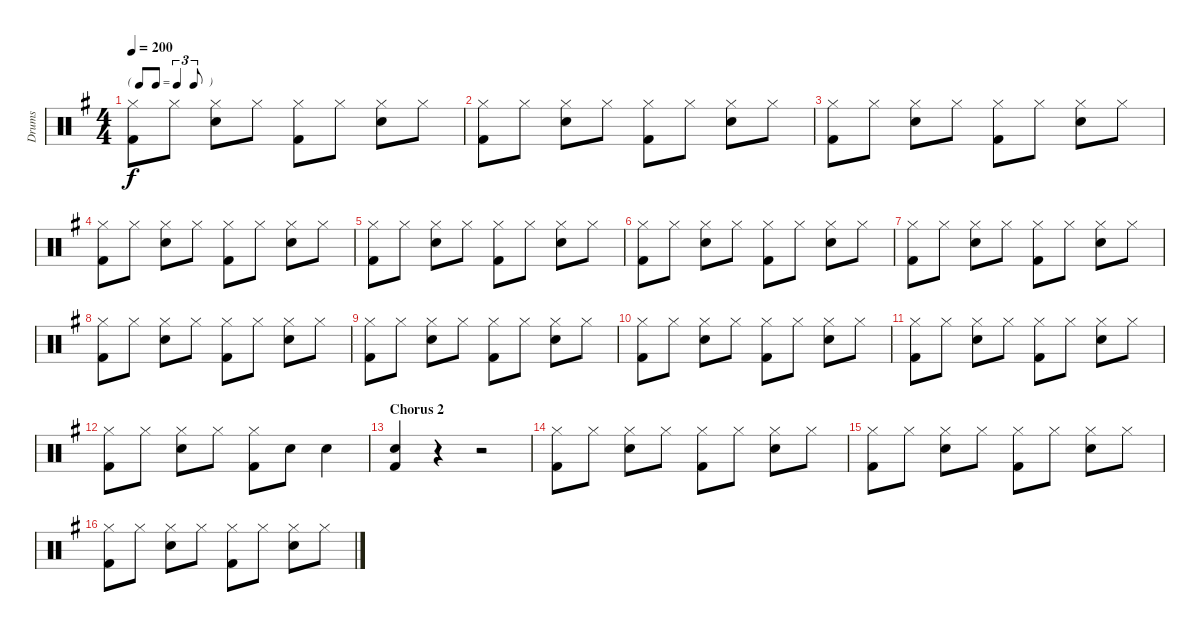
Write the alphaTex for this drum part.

\track ("Drums" "Drums") {instrument percussion}
\staff {score}
\articulation defaults
\ts (4 4)
\tf triplet8th
\tempo 200
\clef neutral
\ks g
("Hi-Hat (closed)" "Kick (hit) 2").8{dy f} "Hi-Hat (closed)".8 ("Hi-Hat (closed)" "Snare (hit) 2").8 "Hi-Hat (closed)".8 ("Hi-Hat (closed)" "Kick (hit) 2").8 "Hi-Hat (closed)".8 ("Hi-Hat (closed)" "Snare (hit) 2").8 "Hi-Hat (closed)".8 |
("Hi-Hat (closed)" "Kick (hit) 2").8 "Hi-Hat (closed)".8 ("Hi-Hat (closed)" "Snare (hit) 2").8 "Hi-Hat (closed)".8 ("Hi-Hat (closed)" "Kick (hit) 2").8 "Hi-Hat (closed)".8 ("Hi-Hat (closed)" "Snare (hit) 2").8 "Hi-Hat (closed)".8 |
("Hi-Hat (closed)" "Kick (hit) 2").8 "Hi-Hat (closed)".8 ("Hi-Hat (closed)" "Snare (hit) 2").8 "Hi-Hat (closed)".8 ("Hi-Hat (closed)" "Kick (hit) 2").8 "Hi-Hat (closed)".8 ("Hi-Hat (closed)" "Snare (hit) 2").8 "Hi-Hat (closed)".8 |
("Hi-Hat (closed)" "Kick (hit) 2").8 "Hi-Hat (closed)".8 ("Hi-Hat (closed)" "Snare (hit) 2").8 "Hi-Hat (closed)".8 ("Hi-Hat (closed)" "Kick (hit) 2").8 "Hi-Hat (closed)".8 ("Hi-Hat (closed)" "Snare (hit) 2").8 "Hi-Hat (closed)".8 |
("Hi-Hat (closed)" "Kick (hit) 2").8 "Hi-Hat (closed)".8 ("Hi-Hat (closed)" "Snare (hit) 2").8 "Hi-Hat (closed)".8 ("Hi-Hat (closed)" "Kick (hit) 2").8 "Hi-Hat (closed)".8 ("Hi-Hat (closed)" "Snare (hit) 2").8 "Hi-Hat (closed)".8 |
("Hi-Hat (closed)" "Kick (hit) 2").8 "Hi-Hat (closed)".8 ("Hi-Hat (closed)" "Snare (hit) 2").8 "Hi-Hat (closed)".8 ("Hi-Hat (closed)" "Kick (hit) 2").8 "Hi-Hat (closed)".8 ("Hi-Hat (closed)" "Snare (hit) 2").8 "Hi-Hat (closed)".8 |
("Hi-Hat (closed)" "Kick (hit) 2").8 "Hi-Hat (closed)".8 ("Hi-Hat (closed)" "Snare (hit) 2").8 "Hi-Hat (closed)".8 ("Hi-Hat (closed)" "Kick (hit) 2").8 "Hi-Hat (closed)".8 ("Hi-Hat (closed)" "Snare (hit) 2").8 "Hi-Hat (closed)".8 |
("Hi-Hat (closed)" "Kick (hit) 2").8 "Hi-Hat (closed)".8 ("Hi-Hat (closed)" "Snare (hit) 2").8 "Hi-Hat (closed)".8 ("Hi-Hat (closed)" "Kick (hit) 2").8 "Hi-Hat (closed)".8 ("Hi-Hat (closed)" "Snare (hit) 2").8 "Hi-Hat (closed)".8 |
("Hi-Hat (closed)" "Kick (hit) 2").8 "Hi-Hat (closed)".8 ("Hi-Hat (closed)" "Snare (hit) 2").8 "Hi-Hat (closed)".8 ("Hi-Hat (closed)" "Kick (hit) 2").8 "Hi-Hat (closed)".8 ("Hi-Hat (closed)" "Snare (hit) 2").8 "Hi-Hat (closed)".8 |
("Hi-Hat (closed)" "Kick (hit) 2").8 "Hi-Hat (closed)".8 ("Hi-Hat (closed)" "Snare (hit) 2").8 "Hi-Hat (closed)".8 ("Hi-Hat (closed)" "Kick (hit) 2").8 "Hi-Hat (closed)".8 ("Hi-Hat (closed)" "Snare (hit) 2").8 "Hi-Hat (closed)".8 |
("Hi-Hat (closed)" "Kick (hit) 2").8 "Hi-Hat (closed)".8 ("Hi-Hat (closed)" "Snare (hit) 2").8 "Hi-Hat (closed)".8 ("Hi-Hat (closed)" "Kick (hit) 2").8 "Hi-Hat (closed)".8 ("Hi-Hat (closed)" "Snare (hit) 2").8 "Hi-Hat (closed)".8 |
("Hi-Hat (closed)" "Kick (hit) 2").8 "Hi-Hat (closed)".8 ("Hi-Hat (closed)" "Snare (hit) 2").8 "Hi-Hat (closed)".8 ("Hi-Hat (closed)" "Kick (hit) 2").8 "Snare (hit) 2".8 "Snare (hit) 2".4 |
\section ("" "Chorus 2")
("Snare (hit) 2" "Kick (hit) 2").4 r.4 r.2 |
("Hi-Hat (closed)" "Kick (hit) 2").8 "Hi-Hat (closed)".8 ("Hi-Hat (closed)" "Snare (hit) 2").8 "Hi-Hat (closed)".8 ("Hi-Hat (closed)" "Kick (hit) 2").8 "Hi-Hat (closed)".8 ("Hi-Hat (closed)" "Snare (hit) 2").8 "Hi-Hat (closed)".8 |
("Hi-Hat (closed)" "Kick (hit) 2").8 "Hi-Hat (closed)".8 ("Hi-Hat (closed)" "Snare (hit) 2").8 "Hi-Hat (closed)".8 ("Hi-Hat (closed)" "Kick (hit) 2").8 "Hi-Hat (closed)".8 ("Hi-Hat (closed)" "Snare (hit) 2").8 "Hi-Hat (closed)".8 |
("Hi-Hat (closed)" "Kick (hit) 2").8 "Hi-Hat (closed)".8 ("Hi-Hat (closed)" "Snare (hit) 2").8 "Hi-Hat (closed)".8 ("Hi-Hat (closed)" "Kick (hit) 2").8 "Hi-Hat (closed)".8 ("Hi-Hat (closed)" "Snare (hit) 2").8 "Hi-Hat (closed)".8
